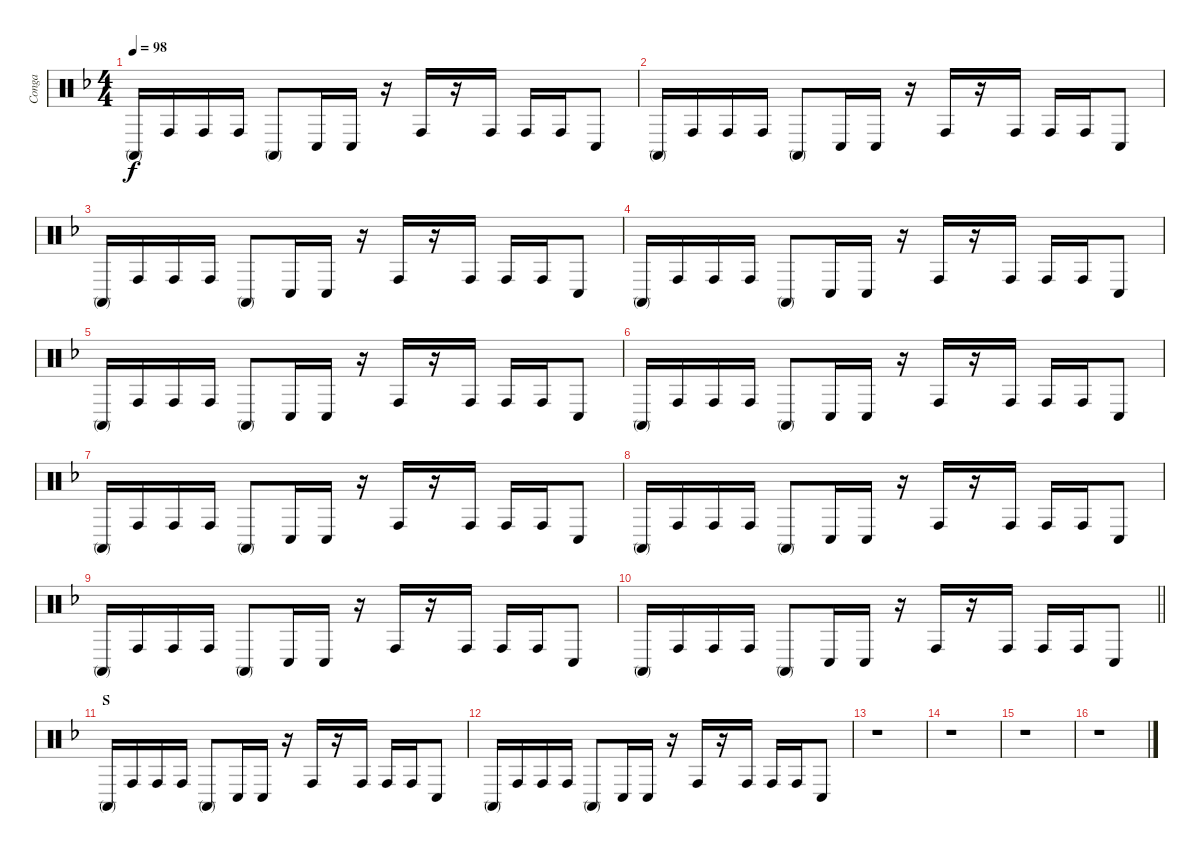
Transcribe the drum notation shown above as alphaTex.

\track ("Conga" "Conga") {instrument percussion}
\staff {score}
\articulation defaults
\ts (4 4)
\tempo 98
\clef neutral
\ks f "Conga high (mute)".16{dy f} "Conga high (hit)".16 "Conga high (hit)".16 "Conga high (hit)".16 "Conga high (mute)".8 "Conga low (hit)".16 "Conga low (hit)".16
r.16 "Conga high (hit)".16 r.16 "Conga high (hit)".16 "Conga high (hit)".16 "Conga high (hit)".16 "Conga low (hit)".8 |
"Conga high (mute)".16 "Conga high (hit)".16 "Conga high (hit)".16 "Conga high (hit)".16 "Conga high (mute)".8 "Conga low (hit)".16 "Conga low (hit)".16 r.16 "Conga high (hit)".16 r.16 "Conga high (hit)".16 "Conga high (hit)".16 "Conga high (hit)".16 "Conga low (hit)".8 |
"Conga high (mute)".16 "Conga high (hit)".16 "Conga high (hit)".16 "Conga high (hit)".16 "Conga high (mute)".8 "Conga low (hit)".16 "Conga low (hit)".16 r.16 "Conga high (hit)".16 r.16 "Conga high (hit)".16 "Conga high (hit)".16 "Conga high (hit)".16 "Conga low (hit)".8 |
"Conga high (mute)".16 "Conga high (hit)".16 "Conga high (hit)".16 "Conga high (hit)".16 "Conga high (mute)".8 "Conga low (hit)".16 "Conga low (hit)".16 r.16 "Conga high (hit)".16 r.16 "Conga high (hit)".16 "Conga high (hit)".16 "Conga high (hit)".16 "Conga low (hit)".8 |
"Conga high (mute)".16 "Conga high (hit)".16 "Conga high (hit)".16 "Conga high (hit)".16 "Conga high (mute)".8 "Conga low (hit)".16 "Conga low (hit)".16 r.16 "Conga high (hit)".16 r.16 "Conga high (hit)".16 "Conga high (hit)".16 "Conga high (hit)".16 "Conga low (hit)".8 |
"Conga high (mute)".16 "Conga high (hit)".16 "Conga high (hit)".16 "Conga high (hit)".16 "Conga high (mute)".8 "Conga low (hit)".16 "Conga low (hit)".16 r.16 "Conga high (hit)".16 r.16 "Conga high (hit)".16 "Conga high (hit)".16 "Conga high (hit)".16 "Conga low (hit)".8 |
"Conga high (mute)".16 "Conga high (hit)".16 "Conga high (hit)".16 "Conga high (hit)".16 "Conga high (mute)".8 "Conga low (hit)".16 "Conga low (hit)".16 r.16 "Conga high (hit)".16 r.16 "Conga high (hit)".16 "Conga high (hit)".16 "Conga high (hit)".16 "Conga low (hit)".8 |
"Conga high (mute)".16 "Conga high (hit)".16 "Conga high (hit)".16 "Conga high (hit)".16 "Conga high (mute)".8 "Conga low (hit)".16 "Conga low (hit)".16 r.16 "Conga high (hit)".16 r.16 "Conga high (hit)".16 "Conga high (hit)".16 "Conga high (hit)".16 "Conga low (hit)".8 |
"Conga high (mute)".16 "Conga high (hit)".16 "Conga high (hit)".16 "Conga high (hit)".16 "Conga high (mute)".8 "Conga low (hit)".16 "Conga low (hit)".16 r.16 "Conga high (hit)".16 r.16 "Conga high (hit)".16 "Conga high (hit)".16 "Conga high (hit)".16 "Conga low (hit)".8 |
\barLineRight lightlight "Conga high (mute)".16 "Conga high (hit)".16 "Conga high (hit)".16 "Conga high (hit)".16 "Conga high (mute)".8 "Conga low (hit)".16 "Conga low (hit)".16
r.16 "Conga high (hit)".16 r.16 "Conga high (hit)".16 "Conga high (hit)".16 "Conga high (hit)".16 "Conga low (hit)".8 |
\section ("" "S")
"Conga high (mute)".16 "Conga high (hit)".16 "Conga high (hit)".16 "Conga high (hit)".16 "Conga high (mute)".8 "Conga low (hit)".16 "Conga low (hit)".16 r.16 "Conga high (hit)".16 r.16 "Conga high (hit)".16 "Conga high (hit)".16 "Conga high (hit)".16 "Conga low (hit)".8 |
"Conga high (mute)".16 "Conga high (hit)".16 "Conga high (hit)".16 "Conga high (hit)".16 "Conga high (mute)".8 "Conga low (hit)".16 "Conga low (hit)".16 r.16 "Conga high (hit)".16 r.16 "Conga high (hit)".16 "Conga high (hit)".16 "Conga high (hit)".16 "Conga low (hit)".8 |
r.1 |
r.1 |
r.1 |
r.1
